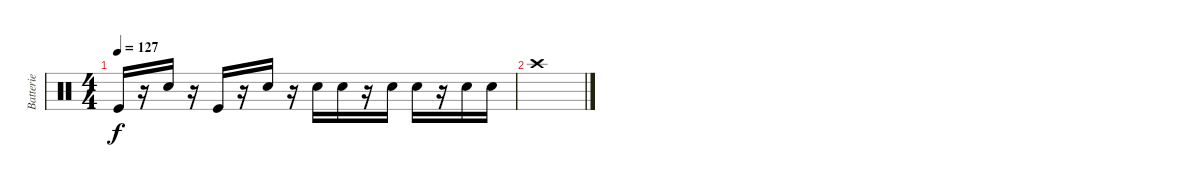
\track ("Batterie" "Batterie") {instrument percussion}
\staff {score}
\articulation defaults
\ts (4 4)
\tempo 127
\clef neutral
\ks c "Kick (hit)".16{dy f}
r.16 "Snare (hit) 2".16 r.16 "Kick (hit)".16 r.16 "Snare (hit) 2".16 r.16 "Snare (hit) 2".16 "Snare (hit) 2".16 r.16 "Snare (hit) 2".16 "Snare (hit) 2".16 r.16 "Snare (hit) 2".16 "Snare (hit) 2".16 |
"Crash high (hit)".1
